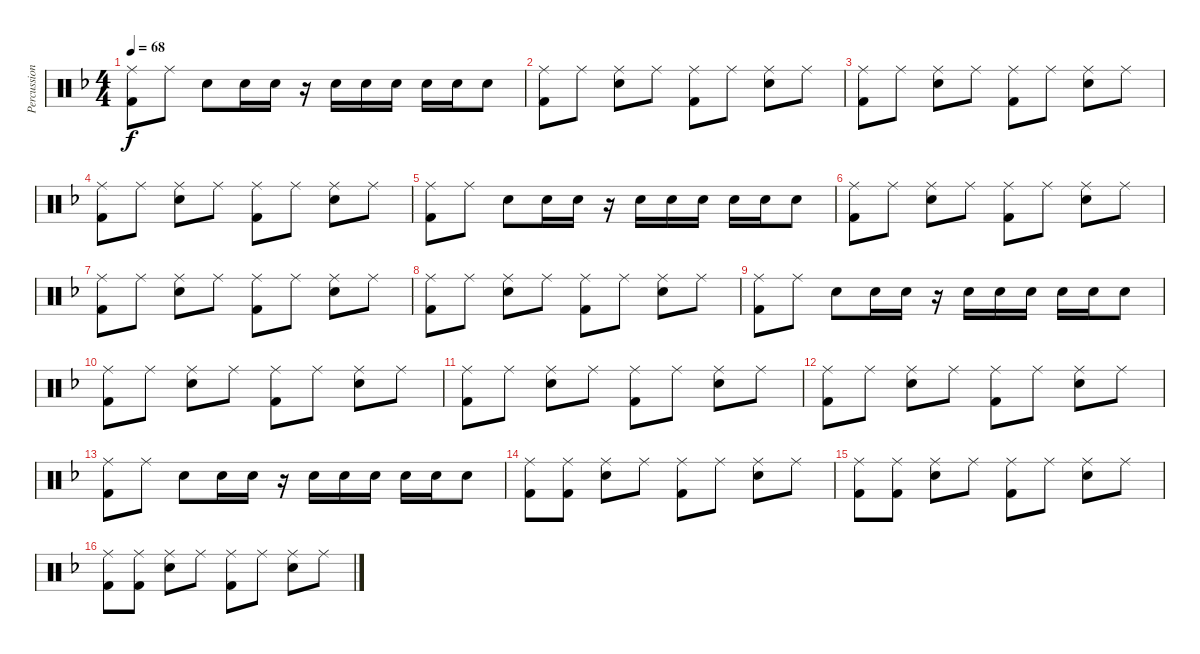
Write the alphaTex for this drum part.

\track ("Percussion" "Percussion") {instrument percussion}
\staff {score}
\articulation defaults
\ts (4 4)
\tempo 68
\clef neutral
\ks f
("Ride (middle)" "Kick (hit) 2").8{dy f} "Ride (middle)".8 "Snare (hit) 2".8 "Snare (hit) 2".16 "Snare (hit) 2".16 r.16 "Snare (hit) 2".16 "Snare (hit) 2".16 "Snare (hit) 2".16 "Snare (hit) 2".16 "Snare (hit) 2".16 "Snare (hit) 2".8 |
("Ride (middle)" "Kick (hit) 2").8 "Ride (middle)".8 ("Ride (middle)" "Snare (hit) 2").8 "Ride (middle)".8 ("Ride (middle)" "Kick (hit) 2").8 "Ride (middle)".8 ("Ride (middle)" "Snare (hit) 2").8 "Ride (middle)".8 |
("Ride (middle)" "Kick (hit) 2").8 "Ride (middle)".8 ("Ride (middle)" "Snare (hit) 2").8 "Ride (middle)".8 ("Ride (middle)" "Kick (hit) 2").8 "Ride (middle)".8 ("Ride (middle)" "Snare (hit) 2").8 "Ride (middle)".8 |
("Ride (middle)" "Kick (hit) 2").8 "Ride (middle)".8 ("Ride (middle)" "Snare (hit) 2").8 "Ride (middle)".8 ("Ride (middle)" "Kick (hit) 2").8 "Ride (middle)".8 ("Ride (middle)" "Snare (hit) 2").8 "Ride (middle)".8 |
("Ride (middle)" "Kick (hit) 2").8 "Ride (middle)".8 "Snare (hit) 2".8 "Snare (hit) 2".16 "Snare (hit) 2".16 r.16 "Snare (hit) 2".16 "Snare (hit) 2".16 "Snare (hit) 2".16 "Snare (hit) 2".16 "Snare (hit) 2".16 "Snare (hit) 2".8 |
("Ride (middle)" "Kick (hit) 2").8 "Ride (middle)".8 ("Ride (middle)" "Snare (hit) 2").8 "Ride (middle)".8 ("Ride (middle)" "Kick (hit) 2").8 "Ride (middle)".8 ("Ride (middle)" "Snare (hit) 2").8 "Ride (middle)".8 |
("Ride (middle)" "Kick (hit) 2").8 "Ride (middle)".8 ("Ride (middle)" "Snare (hit) 2").8 "Ride (middle)".8 ("Ride (middle)" "Kick (hit) 2").8 "Ride (middle)".8 ("Ride (middle)" "Snare (hit) 2").8 "Ride (middle)".8 |
("Ride (middle)" "Kick (hit) 2").8 "Ride (middle)".8 ("Ride (middle)" "Snare (hit) 2").8 "Ride (middle)".8 ("Ride (middle)" "Kick (hit) 2").8 "Ride (middle)".8 ("Ride (middle)" "Snare (hit) 2").8 "Ride (middle)".8 |
("Ride (middle)" "Kick (hit) 2").8 "Ride (middle)".8 "Snare (hit) 2".8 "Snare (hit) 2".16 "Snare (hit) 2".16 r.16 "Snare (hit) 2".16 "Snare (hit) 2".16 "Snare (hit) 2".16 "Snare (hit) 2".16 "Snare (hit) 2".16 "Snare (hit) 2".8 |
("Ride (middle)" "Kick (hit) 2").8 "Ride (middle)".8 ("Ride (middle)" "Snare (hit) 2").8 "Ride (middle)".8 ("Ride (middle)" "Kick (hit) 2").8 "Ride (middle)".8 ("Ride (middle)" "Snare (hit) 2").8 "Ride (middle)".8 |
("Ride (middle)" "Kick (hit) 2").8 "Ride (middle)".8 ("Ride (middle)" "Snare (hit) 2").8 "Ride (middle)".8 ("Ride (middle)" "Kick (hit) 2").8 "Ride (middle)".8 ("Ride (middle)" "Snare (hit) 2").8 "Ride (middle)".8 |
("Ride (middle)" "Kick (hit) 2").8 "Ride (middle)".8 ("Ride (middle)" "Snare (hit) 2").8 "Ride (middle)".8 ("Ride (middle)" "Kick (hit) 2").8 "Ride (middle)".8 ("Ride (middle)" "Snare (hit) 2").8 "Ride (middle)".8 |
("Ride (middle)" "Kick (hit) 2").8 "Ride (middle)".8 "Snare (hit) 2".8 "Snare (hit) 2".16 "Snare (hit) 2".16 r.16 "Snare (hit) 2".16 "Snare (hit) 2".16 "Snare (hit) 2".16 "Snare (hit) 2".16 "Snare (hit) 2".16 "Snare (hit) 2".8 |
("Ride (middle)" "Kick (hit) 2").8 ("Ride (middle)" "Kick (hit) 2").8 ("Ride (middle)" "Snare (hit) 2").8 "Ride (middle)".8 ("Ride (middle)" "Kick (hit) 2").8 "Ride (middle)".8 ("Ride (middle)" "Snare (hit) 2").8 "Ride (middle)".8 |
("Ride (middle)" "Kick (hit) 2").8 ("Ride (middle)" "Kick (hit) 2").8 ("Ride (middle)" "Snare (hit) 2").8 "Ride (middle)".8 ("Ride (middle)" "Kick (hit) 2").8 "Ride (middle)".8 ("Ride (middle)" "Snare (hit) 2").8 "Ride (middle)".8 |
("Ride (middle)" "Kick (hit) 2").8 ("Ride (middle)" "Kick (hit) 2").8 ("Ride (middle)" "Snare (hit) 2").8 "Ride (middle)".8 ("Ride (middle)" "Kick (hit) 2").8 "Ride (middle)".8 ("Ride (middle)" "Snare (hit) 2").8 "Ride (middle)".8
